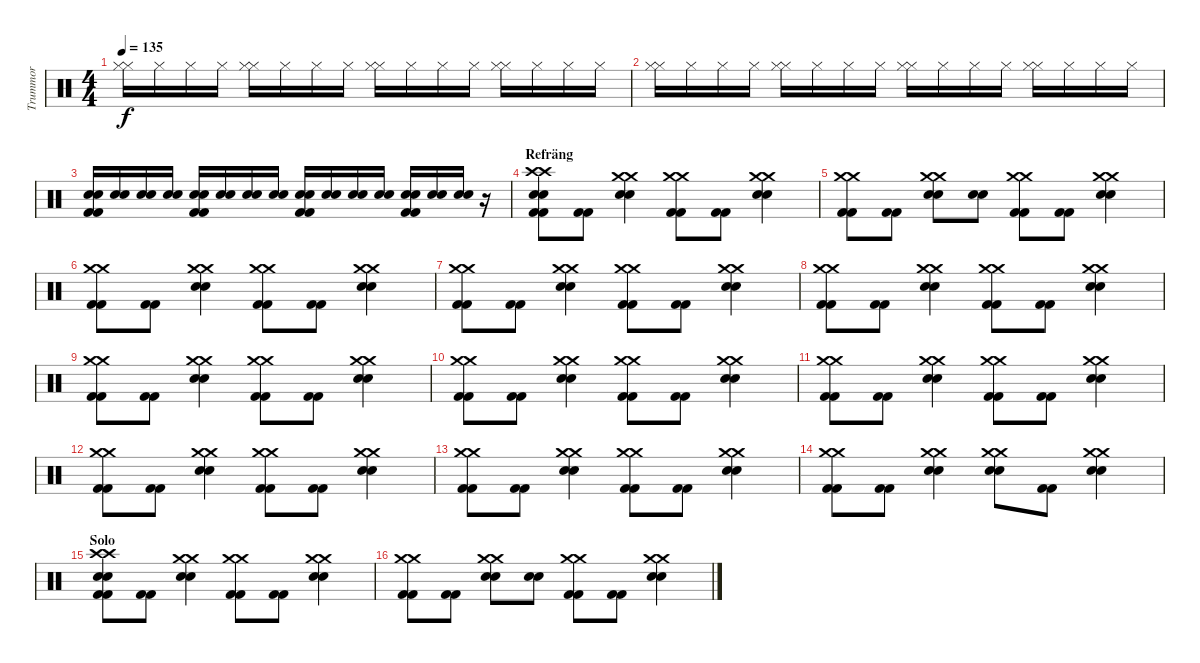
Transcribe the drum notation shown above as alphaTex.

\track ("Trummor" "Trummor") {instrument percussion}
\staff {score}
\articulation defaults
\ts (4 4)
\tempo 135
\clef neutral
\ks c
("Hi-Hat (closed)" "Hi-Hat (closed)").16{dy f} "Hi-Hat (closed)".16 "Hi-Hat (closed)".16 "Hi-Hat (closed)".16 ("Hi-Hat (closed)" "Hi-Hat (closed)").16 "Hi-Hat (closed)".16 "Hi-Hat (closed)".16 "Hi-Hat (closed)".16 ("Hi-Hat (closed)" "Hi-Hat (closed)").16 "Hi-Hat (closed)".16 "Hi-Hat (closed)".16 "Hi-Hat (closed)".16 ("Hi-Hat (closed)" "Hi-Hat (closed)").16 "Hi-Hat (closed)".16 "Hi-Hat (closed)".16 "Hi-Hat (closed)".16 |
("Hi-Hat (closed)" "Hi-Hat (closed)").16 "Hi-Hat (closed)".16 "Hi-Hat (closed)".16 "Hi-Hat (closed)".16 ("Hi-Hat (closed)" "Hi-Hat (closed)").16 "Hi-Hat (closed)".16 "Hi-Hat (closed)".16 "Hi-Hat (closed)".16 ("Hi-Hat (closed)" "Hi-Hat (closed)").16 "Hi-Hat (closed)".16 "Hi-Hat (closed)".16 "Hi-Hat (closed)".16 ("Hi-Hat (closed)" "Hi-Hat (closed)").16 "Hi-Hat (closed)".16 "Hi-Hat (closed)".16 "Hi-Hat (closed)".16 |
("Kick (hit) 2" "Kick (hit) 2" "Snare (hit) 2" "Snare (hit) 2").16 ("Snare (hit) 2" "Snare (hit) 2").16 ("Snare (hit) 2" "Snare (hit) 2").16 ("Snare (hit) 2" "Snare (hit) 2").16 ("Kick (hit) 2" "Kick (hit) 2" "Snare (hit) 2" "Snare (hit) 2").16 ("Snare (hit) 2" "Snare (hit) 2").16 ("Snare (hit) 2" "Snare (hit) 2").16 ("Snare (hit) 2" "Snare (hit) 2").16 ("Kick (hit) 2" "Kick (hit) 2" "Snare (hit) 2" "Snare (hit) 2").16 ("Snare (hit) 2" "Snare (hit) 2").16 ("Snare (hit) 2" "Snare (hit) 2").16 ("Snare (hit) 2" "Snare (hit) 2").16 ("Kick (hit) 2" "Kick (hit) 2" "Snare (hit) 2" "Snare (hit) 2").16 ("Snare (hit) 2" "Snare (hit) 2").16 ("Snare (hit) 2" "Snare (hit) 2").16 r.16 |
\section ("" "Refräng")
("Crash high (hit)" "Crash high (hit)" "Snare (hit) 2" "Snare (hit) 2" "Kick (hit) 2" "Kick (hit) 2").8 ("Kick (hit) 2" "Kick (hit) 2").8 ("Crash medium (hit)" "Crash medium (hit)" "Snare (hit) 2" "Snare (hit) 2").4 ("Crash medium (hit)" "Crash medium (hit)" "Kick (hit) 2" "Kick (hit) 2").8 ("Kick (hit) 2" "Kick (hit) 2").8 ("Crash medium (hit)" "Crash medium (hit)" "Snare (hit) 2" "Snare (hit) 2").4 |
("Crash medium (hit)" "Crash medium (hit)" "Kick (hit) 2" "Kick (hit) 2").8 ("Kick (hit) 2" "Kick (hit) 2").8 ("Crash medium (hit)" "Crash medium (hit)" "Snare (hit) 2" "Snare (hit) 2").8 ("Snare (hit) 2" "Snare (hit) 2").8 ("Crash medium (hit)" "Crash medium (hit)" "Kick (hit) 2" "Kick (hit) 2").8 ("Kick (hit) 2" "Kick (hit) 2").8 ("Crash medium (hit)" "Crash medium (hit)" "Snare (hit) 2" "Snare (hit) 2").4 |
("Crash medium (hit)" "Crash medium (hit)" "Kick (hit) 2" "Kick (hit) 2").8 ("Kick (hit) 2" "Kick (hit) 2").8 ("Crash medium (hit)" "Crash medium (hit)" "Snare (hit) 2" "Snare (hit) 2").4 ("Crash medium (hit)" "Crash medium (hit)" "Kick (hit) 2" "Kick (hit) 2").8 ("Kick (hit) 2" "Kick (hit) 2").8 ("Crash medium (hit)" "Crash medium (hit)" "Snare (hit) 2" "Snare (hit) 2").4 |
("Crash medium (hit)" "Crash medium (hit)" "Kick (hit) 2" "Kick (hit) 2").8 ("Kick (hit) 2" "Kick (hit) 2").8 ("Crash medium (hit)" "Crash medium (hit)" "Snare (hit) 2" "Snare (hit) 2").4 ("Crash medium (hit)" "Crash medium (hit)" "Kick (hit) 2" "Kick (hit) 2").8 ("Kick (hit) 2" "Kick (hit) 2").8 ("Crash medium (hit)" "Crash medium (hit)" "Snare (hit) 2" "Snare (hit) 2").4 |
("Crash medium (hit)" "Crash medium (hit)" "Kick (hit) 2" "Kick (hit) 2").8 ("Kick (hit) 2" "Kick (hit) 2").8 ("Crash medium (hit)" "Crash medium (hit)" "Snare (hit) 2" "Snare (hit) 2").4 ("Crash medium (hit)" "Crash medium (hit)" "Kick (hit) 2" "Kick (hit) 2").8 ("Kick (hit) 2" "Kick (hit) 2").8 ("Crash medium (hit)" "Crash medium (hit)" "Snare (hit) 2" "Snare (hit) 2").4 |
("Crash medium (hit)" "Crash medium (hit)" "Kick (hit) 2" "Kick (hit) 2").8 ("Kick (hit) 2" "Kick (hit) 2").8 ("Crash medium (hit)" "Crash medium (hit)" "Snare (hit) 2" "Snare (hit) 2").4 ("Crash medium (hit)" "Crash medium (hit)" "Kick (hit) 2" "Kick (hit) 2").8 ("Kick (hit) 2" "Kick (hit) 2").8 ("Crash medium (hit)" "Crash medium (hit)" "Snare (hit) 2" "Snare (hit) 2").4 |
("Crash medium (hit)" "Crash medium (hit)" "Kick (hit) 2" "Kick (hit) 2").8 ("Kick (hit) 2" "Kick (hit) 2").8 ("Crash medium (hit)" "Crash medium (hit)" "Snare (hit) 2" "Snare (hit) 2").4 ("Crash medium (hit)" "Crash medium (hit)" "Kick (hit) 2" "Kick (hit) 2").8 ("Kick (hit) 2" "Kick (hit) 2").8 ("Crash medium (hit)" "Crash medium (hit)" "Snare (hit) 2" "Snare (hit) 2").4 |
("Crash medium (hit)" "Crash medium (hit)" "Kick (hit) 2" "Kick (hit) 2").8 ("Kick (hit) 2" "Kick (hit) 2").8 ("Crash medium (hit)" "Crash medium (hit)" "Snare (hit) 2" "Snare (hit) 2").4 ("Crash medium (hit)" "Crash medium (hit)" "Kick (hit) 2" "Kick (hit) 2").8 ("Kick (hit) 2" "Kick (hit) 2").8 ("Crash medium (hit)" "Crash medium (hit)" "Snare (hit) 2" "Snare (hit) 2").4 |
("Crash medium (hit)" "Crash medium (hit)" "Kick (hit) 2" "Kick (hit) 2").8 ("Kick (hit) 2" "Kick (hit) 2").8 ("Crash medium (hit)" "Crash medium (hit)" "Snare (hit) 2" "Snare (hit) 2").4 ("Crash medium (hit)" "Crash medium (hit)" "Kick (hit) 2" "Kick (hit) 2").8 ("Kick (hit) 2" "Kick (hit) 2").8 ("Crash medium (hit)" "Crash medium (hit)" "Snare (hit) 2" "Snare (hit) 2").4 |
("Crash medium (hit)" "Crash medium (hit)" "Kick (hit) 2" "Kick (hit) 2").8 ("Kick (hit) 2" "Kick (hit) 2").8 ("Crash medium (hit)" "Crash medium (hit)" "Snare (hit) 2" "Snare (hit) 2").4 ("Crash medium (hit)" "Crash medium (hit)" "Kick (hit) 2" "Kick (hit) 2").8 ("Kick (hit) 2" "Kick (hit) 2").8 ("Crash medium (hit)" "Crash medium (hit)" "Snare (hit) 2" "Snare (hit) 2").4 |
("Crash medium (hit)" "Crash medium (hit)" "Kick (hit) 2" "Kick (hit) 2").8 ("Kick (hit) 2" "Kick (hit) 2").8 ("Crash medium (hit)" "Crash medium (hit)" "Snare (hit) 2" "Snare (hit) 2").4 ("Crash medium (hit)" "Crash medium (hit)" "Snare (hit) 2" "Snare (hit) 2").8 ("Kick (hit) 2" "Kick (hit) 2").8 ("Crash medium (hit)" "Crash medium (hit)" "Snare (hit) 2" "Snare (hit) 2").4 |
\section ("" "Solo")
("Crash high (hit)" "Crash high (hit)" "Snare (hit) 2" "Snare (hit) 2" "Kick (hit) 2" "Kick (hit) 2").8 ("Kick (hit) 2" "Kick (hit) 2").8 ("Crash medium (hit)" "Crash medium (hit)" "Snare (hit) 2" "Snare (hit) 2").4 ("Crash medium (hit)" "Crash medium (hit)" "Kick (hit) 2" "Kick (hit) 2").8 ("Kick (hit) 2" "Kick (hit) 2").8 ("Crash medium (hit)" "Crash medium (hit)" "Snare (hit) 2" "Snare (hit) 2").4 |
("Crash medium (hit)" "Crash medium (hit)" "Kick (hit) 2" "Kick (hit) 2").8 ("Kick (hit) 2" "Kick (hit) 2").8 ("Crash medium (hit)" "Crash medium (hit)" "Snare (hit) 2" "Snare (hit) 2").8 ("Snare (hit) 2" "Snare (hit) 2").8 ("Crash medium (hit)" "Crash medium (hit)" "Kick (hit) 2" "Kick (hit) 2").8 ("Kick (hit) 2" "Kick (hit) 2").8 ("Crash medium (hit)" "Crash medium (hit)" "Snare (hit) 2" "Snare (hit) 2").4
